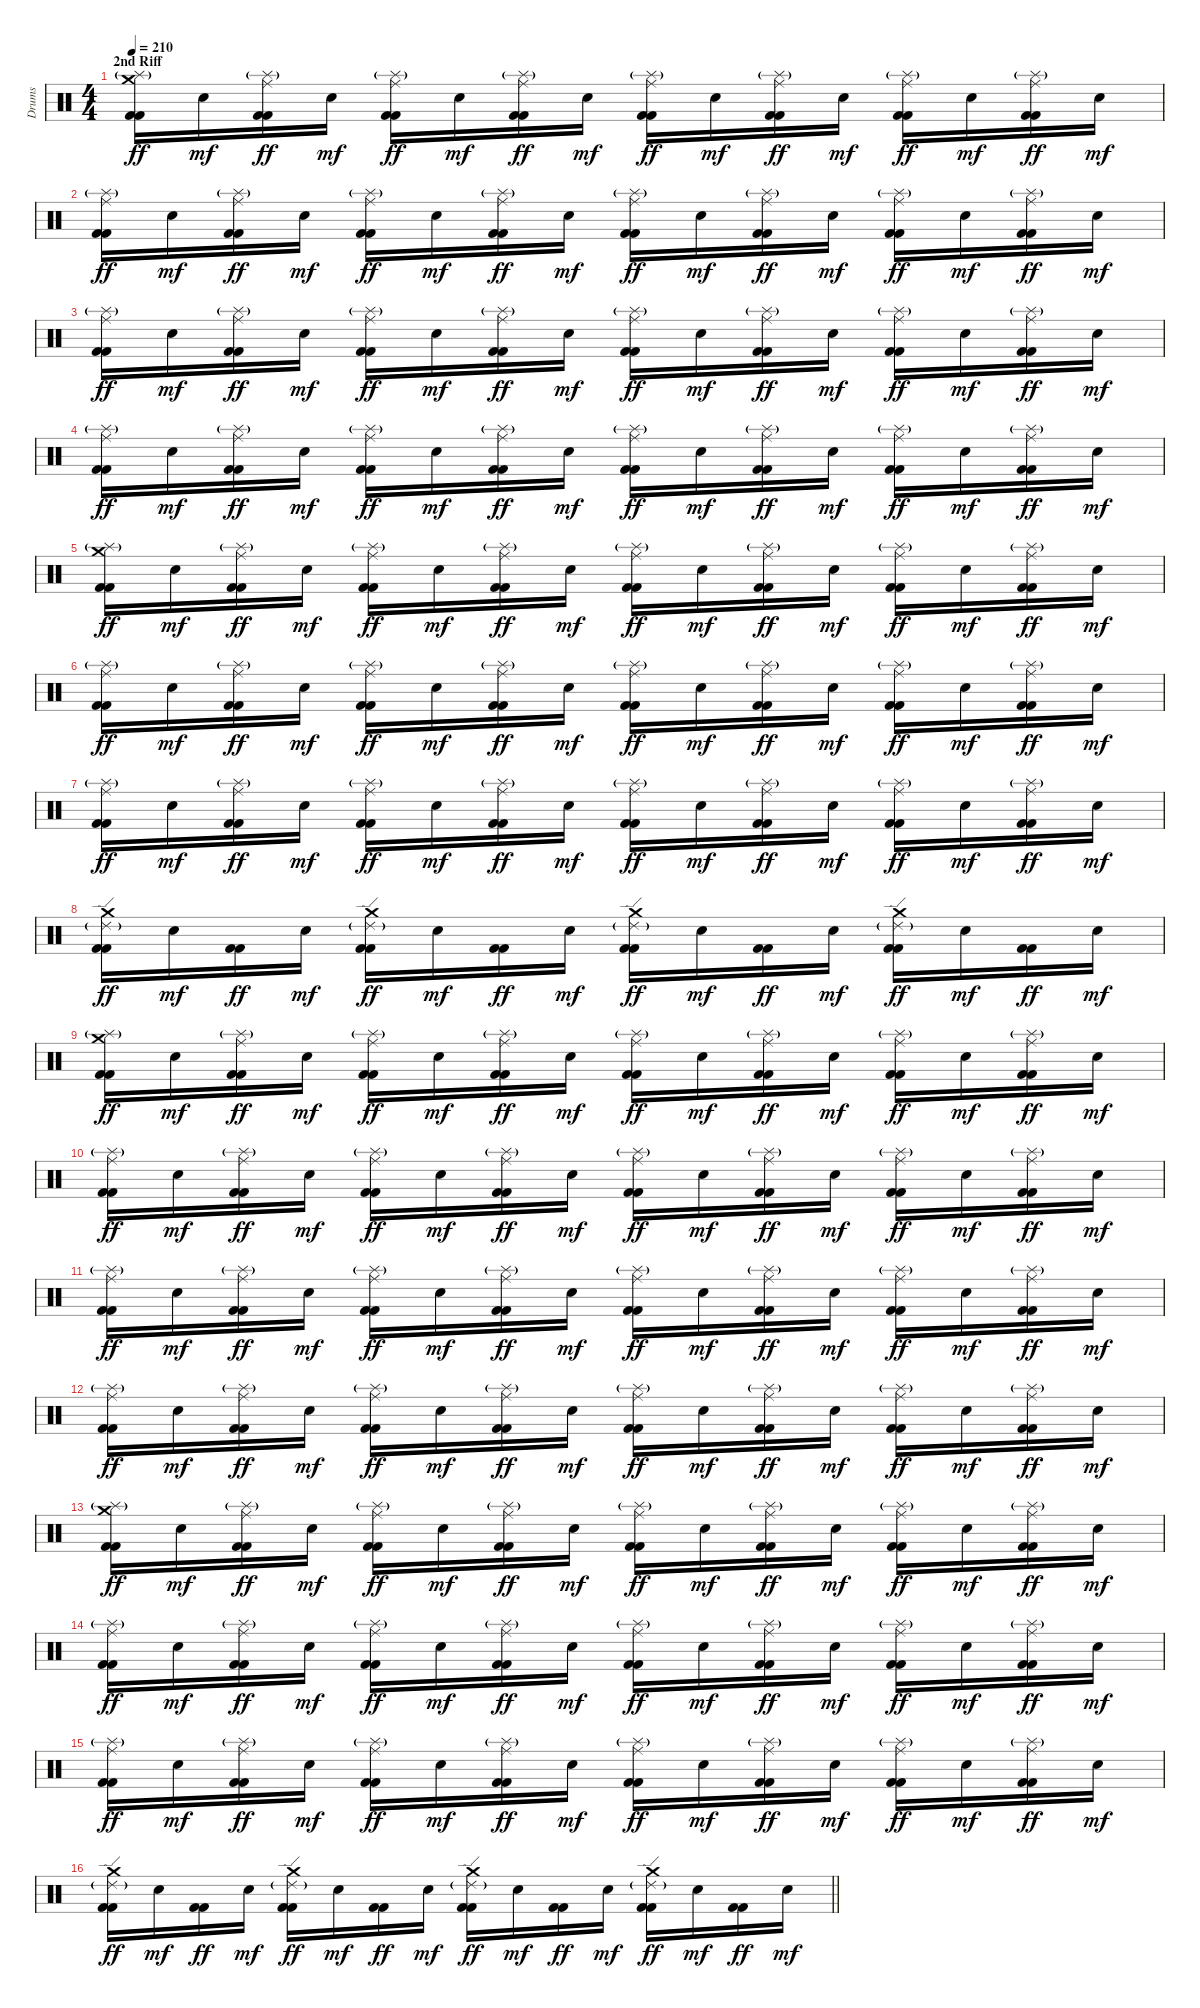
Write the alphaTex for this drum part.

\track ("Drums" "Drums") {instrument percussion}
\staff {score}
\articulation defaults
\ts (4 4)
\section ("" "2nd Riff")
\tempo 210
\clef neutral
\ks c
("Crash medium (hit)" "Splash (hit)"{g} "Kick (hit) 2" "Kick (hit) 2").16{dy ff} "Snare (hit) 2".16{dy mf} ("Ride (middle)" "Splash (hit)"{g} "Kick (hit) 2" "Kick (hit) 2").16{dy ff} "Snare (hit) 2".16{dy mf} ("Ride (middle)" "Splash (hit)"{g} "Kick (hit) 2" "Kick (hit) 2").16{dy ff} "Snare (hit) 2".16{dy mf} ("Ride (middle)" "Splash (hit)"{g} "Kick (hit) 2" "Kick (hit) 2").16{dy ff} "Snare (hit) 2".16{dy mf} ("Ride (middle)" "Splash (hit)"{g} "Kick (hit) 2" "Kick (hit) 2").16{dy ff} "Snare (hit) 2".16{dy mf} ("Ride (middle)" "Splash (hit)"{g} "Kick (hit) 2" "Kick (hit) 2").16{dy ff} "Snare (hit) 2".16{dy mf} ("Ride (middle)" "Splash (hit)"{g} "Kick (hit) 2" "Kick (hit) 2").16{dy ff} "Snare (hit) 2".16{dy mf} ("Ride (middle)" "Splash (hit)"{g} "Kick (hit) 2" "Kick (hit) 2").16{dy ff} "Snare (hit) 2".16{dy mf} |
("Ride (middle)" "Splash (hit)"{g} "Kick (hit) 2" "Kick (hit) 2").16{dy ff} "Snare (hit) 2".16{dy mf} ("Ride (middle)" "Splash (hit)"{g} "Kick (hit) 2" "Kick (hit) 2").16{dy ff} "Snare (hit) 2".16{dy mf} ("Ride (middle)" "Splash (hit)"{g} "Kick (hit) 2" "Kick (hit) 2").16{dy ff} "Snare (hit) 2".16{dy mf} ("Ride (middle)" "Splash (hit)"{g} "Kick (hit) 2" "Kick (hit) 2").16{dy ff} "Snare (hit) 2".16{dy mf} ("Ride (middle)" "Splash (hit)"{g} "Kick (hit) 2" "Kick (hit) 2").16{dy ff} "Snare (hit) 2".16{dy mf} ("Ride (middle)" "Splash (hit)"{g} "Kick (hit) 2" "Kick (hit) 2").16{dy ff} "Snare (hit) 2".16{dy mf} ("Ride (middle)" "Splash (hit)"{g} "Kick (hit) 2" "Kick (hit) 2").16{dy ff} "Snare (hit) 2".16{dy mf} ("Ride (middle)" "Splash (hit)"{g} "Kick (hit) 2" "Kick (hit) 2").16{dy ff} "Snare (hit) 2".16{dy mf} |
("Ride (middle)" "Splash (hit)"{g} "Kick (hit) 2" "Kick (hit) 2").16{dy ff} "Snare (hit) 2".16{dy mf} ("Ride (middle)" "Splash (hit)"{g} "Kick (hit) 2" "Kick (hit) 2").16{dy ff} "Snare (hit) 2".16{dy mf} ("Ride (middle)" "Splash (hit)"{g} "Kick (hit) 2" "Kick (hit) 2").16{dy ff} "Snare (hit) 2".16{dy mf} ("Ride (middle)" "Splash (hit)"{g} "Kick (hit) 2" "Kick (hit) 2").16{dy ff} "Snare (hit) 2".16{dy mf} ("Ride (middle)" "Splash (hit)"{g} "Kick (hit) 2" "Kick (hit) 2").16{dy ff} "Snare (hit) 2".16{dy mf} ("Ride (middle)" "Splash (hit)"{g} "Kick (hit) 2" "Kick (hit) 2").16{dy ff} "Snare (hit) 2".16{dy mf} ("Ride (middle)" "Splash (hit)"{g} "Kick (hit) 2" "Kick (hit) 2").16{dy ff} "Snare (hit) 2".16{dy mf} ("Ride (middle)" "Splash (hit)"{g} "Kick (hit) 2" "Kick (hit) 2").16{dy ff} "Snare (hit) 2".16{dy mf} |
("Ride (middle)" "Splash (hit)"{g} "Kick (hit) 2" "Kick (hit) 2").16{dy ff} "Snare (hit) 2".16{dy mf} ("Ride (middle)" "Splash (hit)"{g} "Kick (hit) 2" "Kick (hit) 2").16{dy ff} "Snare (hit) 2".16{dy mf} ("Ride (middle)" "Splash (hit)"{g} "Kick (hit) 2" "Kick (hit) 2").16{dy ff} "Snare (hit) 2".16{dy mf} ("Ride (middle)" "Splash (hit)"{g} "Kick (hit) 2" "Kick (hit) 2").16{dy ff} "Snare (hit) 2".16{dy mf} ("Ride (middle)" "Splash (hit)"{g} "Kick (hit) 2" "Kick (hit) 2").16{dy ff} "Snare (hit) 2".16{dy mf} ("Ride (middle)" "Splash (hit)"{g} "Kick (hit) 2" "Kick (hit) 2").16{dy ff} "Snare (hit) 2".16{dy mf} ("Ride (middle)" "Splash (hit)"{g} "Kick (hit) 2" "Kick (hit) 2").16{dy ff} "Snare (hit) 2".16{dy mf} ("Ride (middle)" "Splash (hit)"{g} "Kick (hit) 2" "Kick (hit) 2").16{dy ff} "Snare (hit) 2".16{dy mf} |
("Crash medium (hit)" "Splash (hit)"{g} "Kick (hit) 2" "Kick (hit) 2").16{dy ff} "Snare (hit) 2".16{dy mf} ("Ride (middle)" "Splash (hit)"{g} "Kick (hit) 2" "Kick (hit) 2").16{dy ff} "Snare (hit) 2".16{dy mf} ("Ride (middle)" "Splash (hit)"{g} "Kick (hit) 2" "Kick (hit) 2").16{dy ff} "Snare (hit) 2".16{dy mf} ("Ride (middle)" "Splash (hit)"{g} "Kick (hit) 2" "Kick (hit) 2").16{dy ff} "Snare (hit) 2".16{dy mf} ("Ride (middle)" "Splash (hit)"{g} "Kick (hit) 2" "Kick (hit) 2").16{dy ff} "Snare (hit) 2".16{dy mf} ("Ride (middle)" "Splash (hit)"{g} "Kick (hit) 2" "Kick (hit) 2").16{dy ff} "Snare (hit) 2".16{dy mf} ("Ride (middle)" "Splash (hit)"{g} "Kick (hit) 2" "Kick (hit) 2").16{dy ff} "Snare (hit) 2".16{dy mf} ("Ride (middle)" "Splash (hit)"{g} "Kick (hit) 2" "Kick (hit) 2").16{dy ff} "Snare (hit) 2".16{dy mf} |
("Ride (middle)" "Splash (hit)"{g} "Kick (hit) 2" "Kick (hit) 2").16{dy ff} "Snare (hit) 2".16{dy mf} ("Ride (middle)" "Splash (hit)"{g} "Kick (hit) 2" "Kick (hit) 2").16{dy ff} "Snare (hit) 2".16{dy mf} ("Ride (middle)" "Splash (hit)"{g} "Kick (hit) 2" "Kick (hit) 2").16{dy ff} "Snare (hit) 2".16{dy mf} ("Ride (middle)" "Splash (hit)"{g} "Kick (hit) 2" "Kick (hit) 2").16{dy ff} "Snare (hit) 2".16{dy mf} ("Ride (middle)" "Splash (hit)"{g} "Kick (hit) 2" "Kick (hit) 2").16{dy ff} "Snare (hit) 2".16{dy mf} ("Ride (middle)" "Splash (hit)"{g} "Kick (hit) 2" "Kick (hit) 2").16{dy ff} "Snare (hit) 2".16{dy mf} ("Ride (middle)" "Splash (hit)"{g} "Kick (hit) 2" "Kick (hit) 2").16{dy ff} "Snare (hit) 2".16{dy mf} ("Ride (middle)" "Splash (hit)"{g} "Kick (hit) 2" "Kick (hit) 2").16{dy ff} "Snare (hit) 2".16{dy mf} |
("Ride (middle)" "Splash (hit)"{g} "Kick (hit) 2" "Kick (hit) 2").16{dy ff} "Snare (hit) 2".16{dy mf} ("Ride (middle)" "Splash (hit)"{g} "Kick (hit) 2" "Kick (hit) 2").16{dy ff} "Snare (hit) 2".16{dy mf} ("Ride (middle)" "Splash (hit)"{g} "Kick (hit) 2" "Kick (hit) 2").16{dy ff} "Snare (hit) 2".16{dy mf} ("Ride (middle)" "Splash (hit)"{g} "Kick (hit) 2" "Kick (hit) 2").16{dy ff} "Snare (hit) 2".16{dy mf} ("Ride (middle)" "Splash (hit)"{g} "Kick (hit) 2" "Kick (hit) 2").16{dy ff} "Snare (hit) 2".16{dy mf} ("Ride (middle)" "Splash (hit)"{g} "Kick (hit) 2" "Kick (hit) 2").16{dy ff} "Snare (hit) 2".16{dy mf} ("Ride (middle)" "Splash (hit)"{g} "Kick (hit) 2" "Kick (hit) 2").16{dy ff} "Snare (hit) 2".16{dy mf} ("Ride (middle)" "Splash (hit)"{g} "Kick (hit) 2" "Kick (hit) 2").16{dy ff} "Snare (hit) 2".16{dy mf} |
("Crash medium (hit)" "Ride (edge) 2"{g} "Kick (hit) 2" "Kick (hit) 2").16{dy ff} "Snare (hit) 2".16{dy mf} ("Kick (hit) 2" "Kick (hit) 2").16{dy ff} "Snare (hit) 2".16{dy mf} ("Crash medium (hit)" "Ride (edge) 2"{g} "Kick (hit) 2" "Kick (hit) 2").16{dy ff} "Snare (hit) 2".16{dy mf} ("Kick (hit) 2" "Kick (hit) 2").16{dy ff} "Snare (hit) 2".16{dy mf} ("Crash medium (hit)" "Ride (edge) 2"{g} "Kick (hit) 2" "Kick (hit) 2").16{dy ff} "Snare (hit) 2".16{dy mf} ("Kick (hit) 2" "Kick (hit) 2").16{dy ff} "Snare (hit) 2".16{dy mf} ("Crash medium (hit)" "Ride (edge) 2"{g} "Kick (hit) 2" "Kick (hit) 2").16{dy ff} "Snare (hit) 2".16{dy mf} ("Kick (hit) 2" "Kick (hit) 2").16{dy ff} "Snare (hit) 2".16{dy mf} |
("Crash medium (hit)" "Splash (hit)"{g} "Kick (hit) 2" "Kick (hit) 2").16{dy ff} "Snare (hit) 2".16{dy mf} ("Ride (middle)" "Splash (hit)"{g} "Kick (hit) 2" "Kick (hit) 2").16{dy ff} "Snare (hit) 2".16{dy mf} ("Ride (middle)" "Splash (hit)"{g} "Kick (hit) 2" "Kick (hit) 2").16{dy ff} "Snare (hit) 2".16{dy mf} ("Ride (middle)" "Splash (hit)"{g} "Kick (hit) 2" "Kick (hit) 2").16{dy ff} "Snare (hit) 2".16{dy mf} ("Ride (middle)" "Splash (hit)"{g} "Kick (hit) 2" "Kick (hit) 2").16{dy ff} "Snare (hit) 2".16{dy mf} ("Ride (middle)" "Splash (hit)"{g} "Kick (hit) 2" "Kick (hit) 2").16{dy ff} "Snare (hit) 2".16{dy mf} ("Ride (middle)" "Splash (hit)"{g} "Kick (hit) 2" "Kick (hit) 2").16{dy ff} "Snare (hit) 2".16{dy mf} ("Ride (middle)" "Splash (hit)"{g} "Kick (hit) 2" "Kick (hit) 2").16{dy ff} "Snare (hit) 2".16{dy mf} |
("Ride (middle)" "Splash (hit)"{g} "Kick (hit) 2" "Kick (hit) 2").16{dy ff} "Snare (hit) 2".16{dy mf} ("Ride (middle)" "Splash (hit)"{g} "Kick (hit) 2" "Kick (hit) 2").16{dy ff} "Snare (hit) 2".16{dy mf} ("Ride (middle)" "Splash (hit)"{g} "Kick (hit) 2" "Kick (hit) 2").16{dy ff} "Snare (hit) 2".16{dy mf} ("Ride (middle)" "Splash (hit)"{g} "Kick (hit) 2" "Kick (hit) 2").16{dy ff} "Snare (hit) 2".16{dy mf} ("Ride (middle)" "Splash (hit)"{g} "Kick (hit) 2" "Kick (hit) 2").16{dy ff} "Snare (hit) 2".16{dy mf} ("Ride (middle)" "Splash (hit)"{g} "Kick (hit) 2" "Kick (hit) 2").16{dy ff} "Snare (hit) 2".16{dy mf} ("Ride (middle)" "Splash (hit)"{g} "Kick (hit) 2" "Kick (hit) 2").16{dy ff} "Snare (hit) 2".16{dy mf} ("Ride (middle)" "Splash (hit)"{g} "Kick (hit) 2" "Kick (hit) 2").16{dy ff} "Snare (hit) 2".16{dy mf} |
("Ride (middle)" "Splash (hit)"{g} "Kick (hit) 2" "Kick (hit) 2").16{dy ff} "Snare (hit) 2".16{dy mf} ("Ride (middle)" "Splash (hit)"{g} "Kick (hit) 2" "Kick (hit) 2").16{dy ff} "Snare (hit) 2".16{dy mf} ("Ride (middle)" "Splash (hit)"{g} "Kick (hit) 2" "Kick (hit) 2").16{dy ff} "Snare (hit) 2".16{dy mf} ("Ride (middle)" "Splash (hit)"{g} "Kick (hit) 2" "Kick (hit) 2").16{dy ff} "Snare (hit) 2".16{dy mf} ("Ride (middle)" "Splash (hit)"{g} "Kick (hit) 2" "Kick (hit) 2").16{dy ff} "Snare (hit) 2".16{dy mf} ("Ride (middle)" "Splash (hit)"{g} "Kick (hit) 2" "Kick (hit) 2").16{dy ff} "Snare (hit) 2".16{dy mf} ("Ride (middle)" "Splash (hit)"{g} "Kick (hit) 2" "Kick (hit) 2").16{dy ff} "Snare (hit) 2".16{dy mf} ("Ride (middle)" "Splash (hit)"{g} "Kick (hit) 2" "Kick (hit) 2").16{dy ff} "Snare (hit) 2".16{dy mf} |
("Ride (middle)" "Splash (hit)"{g} "Kick (hit) 2" "Kick (hit) 2").16{dy ff} "Snare (hit) 2".16{dy mf} ("Ride (middle)" "Splash (hit)"{g} "Kick (hit) 2" "Kick (hit) 2").16{dy ff} "Snare (hit) 2".16{dy mf} ("Ride (middle)" "Splash (hit)"{g} "Kick (hit) 2" "Kick (hit) 2").16{dy ff} "Snare (hit) 2".16{dy mf} ("Ride (middle)" "Splash (hit)"{g} "Kick (hit) 2" "Kick (hit) 2").16{dy ff} "Snare (hit) 2".16{dy mf} ("Ride (middle)" "Splash (hit)"{g} "Kick (hit) 2" "Kick (hit) 2").16{dy ff} "Snare (hit) 2".16{dy mf} ("Ride (middle)" "Splash (hit)"{g} "Kick (hit) 2" "Kick (hit) 2").16{dy ff} "Snare (hit) 2".16{dy mf} ("Ride (middle)" "Splash (hit)"{g} "Kick (hit) 2" "Kick (hit) 2").16{dy ff} "Snare (hit) 2".16{dy mf} ("Ride (middle)" "Splash (hit)"{g} "Kick (hit) 2" "Kick (hit) 2").16{dy ff} "Snare (hit) 2".16{dy mf} |
("Crash medium (hit)" "Splash (hit)"{g} "Kick (hit) 2" "Kick (hit) 2").16{dy ff} "Snare (hit) 2".16{dy mf} ("Ride (middle)" "Splash (hit)"{g} "Kick (hit) 2" "Kick (hit) 2").16{dy ff} "Snare (hit) 2".16{dy mf} ("Ride (middle)" "Splash (hit)"{g} "Kick (hit) 2" "Kick (hit) 2").16{dy ff} "Snare (hit) 2".16{dy mf} ("Ride (middle)" "Splash (hit)"{g} "Kick (hit) 2" "Kick (hit) 2").16{dy ff} "Snare (hit) 2".16{dy mf} ("Ride (middle)" "Splash (hit)"{g} "Kick (hit) 2" "Kick (hit) 2").16{dy ff} "Snare (hit) 2".16{dy mf} ("Ride (middle)" "Splash (hit)"{g} "Kick (hit) 2" "Kick (hit) 2").16{dy ff} "Snare (hit) 2".16{dy mf} ("Ride (middle)" "Splash (hit)"{g} "Kick (hit) 2" "Kick (hit) 2").16{dy ff} "Snare (hit) 2".16{dy mf} ("Ride (middle)" "Splash (hit)"{g} "Kick (hit) 2" "Kick (hit) 2").16{dy ff} "Snare (hit) 2".16{dy mf} |
("Ride (middle)" "Splash (hit)"{g} "Kick (hit) 2" "Kick (hit) 2").16{dy ff} "Snare (hit) 2".16{dy mf} ("Ride (middle)" "Splash (hit)"{g} "Kick (hit) 2" "Kick (hit) 2").16{dy ff} "Snare (hit) 2".16{dy mf} ("Ride (middle)" "Splash (hit)"{g} "Kick (hit) 2" "Kick (hit) 2").16{dy ff} "Snare (hit) 2".16{dy mf} ("Ride (middle)" "Splash (hit)"{g} "Kick (hit) 2" "Kick (hit) 2").16{dy ff} "Snare (hit) 2".16{dy mf} ("Ride (middle)" "Splash (hit)"{g} "Kick (hit) 2" "Kick (hit) 2").16{dy ff} "Snare (hit) 2".16{dy mf} ("Ride (middle)" "Splash (hit)"{g} "Kick (hit) 2" "Kick (hit) 2").16{dy ff} "Snare (hit) 2".16{dy mf} ("Ride (middle)" "Splash (hit)"{g} "Kick (hit) 2" "Kick (hit) 2").16{dy ff} "Snare (hit) 2".16{dy mf} ("Ride (middle)" "Splash (hit)"{g} "Kick (hit) 2" "Kick (hit) 2").16{dy ff} "Snare (hit) 2".16{dy mf} |
("Ride (middle)" "Splash (hit)"{g} "Kick (hit) 2" "Kick (hit) 2").16{dy ff} "Snare (hit) 2".16{dy mf} ("Ride (middle)" "Splash (hit)"{g} "Kick (hit) 2" "Kick (hit) 2").16{dy ff} "Snare (hit) 2".16{dy mf} ("Ride (middle)" "Splash (hit)"{g} "Kick (hit) 2" "Kick (hit) 2").16{dy ff} "Snare (hit) 2".16{dy mf} ("Ride (middle)" "Splash (hit)"{g} "Kick (hit) 2" "Kick (hit) 2").16{dy ff} "Snare (hit) 2".16{dy mf} ("Ride (middle)" "Splash (hit)"{g} "Kick (hit) 2" "Kick (hit) 2").16{dy ff} "Snare (hit) 2".16{dy mf} ("Ride (middle)" "Splash (hit)"{g} "Kick (hit) 2" "Kick (hit) 2").16{dy ff} "Snare (hit) 2".16{dy mf} ("Ride (middle)" "Splash (hit)"{g} "Kick (hit) 2" "Kick (hit) 2").16{dy ff} "Snare (hit) 2".16{dy mf} ("Ride (middle)" "Splash (hit)"{g} "Kick (hit) 2" "Kick (hit) 2").16{dy ff} "Snare (hit) 2".16{dy mf} |
\barLineRight lightlight
("Crash medium (hit)" "Ride (edge) 2"{g} "Kick (hit) 2" "Kick (hit) 2").16{dy ff} "Snare (hit) 2".16{dy mf} ("Kick (hit) 2" "Kick (hit) 2").16{dy ff} "Snare (hit) 2".16{dy mf} ("Crash medium (hit)" "Ride (edge) 2"{g} "Kick (hit) 2" "Kick (hit) 2").16{dy ff} "Snare (hit) 2".16{dy mf} ("Kick (hit) 2" "Kick (hit) 2").16{dy ff} "Snare (hit) 2".16{dy mf} ("Crash medium (hit)" "Ride (edge) 2"{g} "Kick (hit) 2" "Kick (hit) 2").16{dy ff} "Snare (hit) 2".16{dy mf} ("Kick (hit) 2" "Kick (hit) 2").16{dy ff} "Snare (hit) 2".16{dy mf} ("Crash medium (hit)" "Ride (edge) 2"{g} "Kick (hit) 2" "Kick (hit) 2").16{dy ff} "Snare (hit) 2".16{dy mf} ("Kick (hit) 2" "Kick (hit) 2").16{dy ff} "Snare (hit) 2".16{dy mf}
